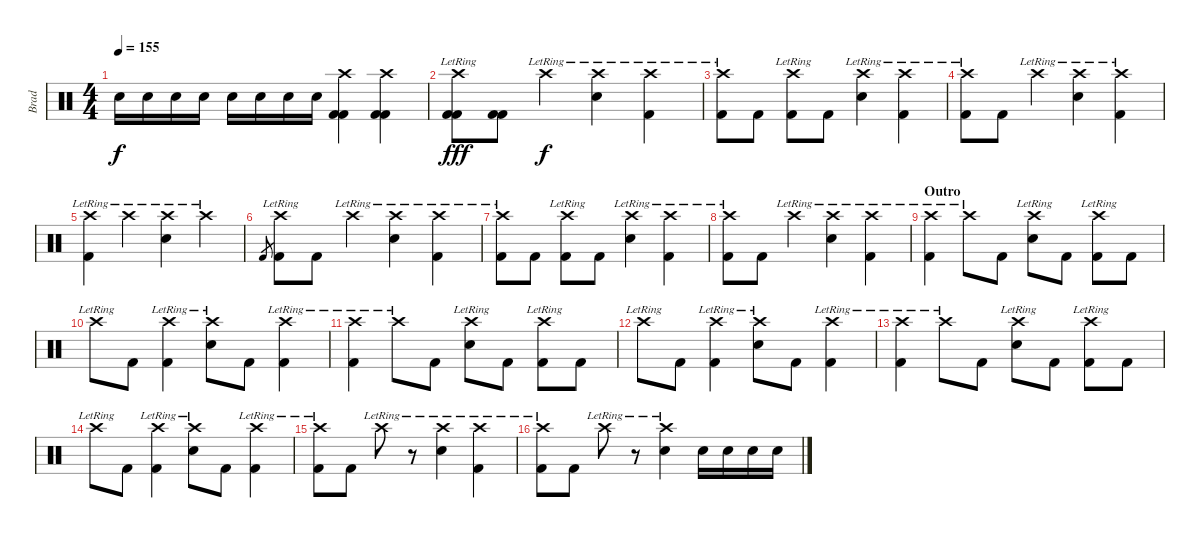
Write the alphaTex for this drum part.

\track ("Brad" "Brad") {instrument percussion}
\staff {score}
\articulation defaults
\ts (4 4)
\tempo 155
\clef neutral
\ks c "Snare (hit) 2".16{dy f} "Snare (hit) 2".16 "Snare (hit) 2".16 "Snare (hit) 2".16 "Snare (hit) 2".16 "Snare (hit) 2".16 "Snare (hit) 2".16 "Snare (hit) 2".16
("Crash high (hit)" "Kick (hit) 2" "Kick (hit) 2").4 ("Crash high (hit)" "Kick (hit) 2" "Kick (hit) 2").4 |
("Crash high (hit)"{lr} "Kick (hit) 2" "Kick (hit) 2").8{dy fff} ("Kick (hit) 2" "Kick (hit) 2").8 "Crash high (hit)"{lr}.4{dy f} ("Crash high (hit)"{lr} "Snare (hit) 2").4 ("Crash high (hit)"{lr} "Kick (hit) 2").4 |
("Crash high (hit)"{lr} "Kick (hit) 2").8 "Kick (hit) 2".8 ("Crash high (hit)"{lr} "Kick (hit) 2").8 "Kick (hit) 2".8 ("Crash high (hit)"{lr} "Electric Snare (hit)").4 ("Crash high (hit)"{lr} "Kick (hit) 2").4 |
("Crash high (hit)"{lr} "Kick (hit) 2").8 "Kick (hit) 2".8 "Crash high (hit)"{lr}.4 ("Crash high (hit)"{lr} "Electric Snare (hit)").4 ("Crash high (hit)"{lr} "Kick (hit) 2").4 |
("Crash high (hit)"{lr} "Kick (hit) 2").4 "Crash high (hit)"{lr}.4 ("Crash high (hit)"{lr} "Electric Snare (hit)").4 "Crash high (hit)"{lr}.4 |
"Kick (hit) 2".8{gr} ("Crash high (hit)"{lr} "Kick (hit) 2").8 "Kick (hit) 2".8 "Crash high (hit)"{lr}.4 ("Crash high (hit)"{lr} "Electric Snare (hit)").4 ("Crash high (hit)"{lr} "Kick (hit) 2").4 |
("Crash high (hit)"{lr} "Kick (hit) 2").8 "Kick (hit) 2".8 ("Crash high (hit)"{lr} "Kick (hit) 2").8 "Kick (hit) 2".8 ("Crash high (hit)"{lr} "Electric Snare (hit)").4 ("Crash high (hit)"{lr} "Kick (hit) 2").4 |
("Crash high (hit)"{lr} "Kick (hit) 2").8 "Kick (hit) 2".8 "Crash high (hit)"{lr}.4 ("Crash high (hit)"{lr} "Electric Snare (hit)").4 ("Crash high (hit)"{lr} "Kick (hit) 2").4 |
\section ("" "Outro")
("Crash high (hit)"{lr} "Kick (hit) 2").4 "Crash high (hit)"{lr}.8 "Kick (hit) 2".8 ("Crash high (hit)"{lr} "Electric Snare (hit)").8 "Kick (hit) 2".8 ("Crash high (hit)"{lr} "Kick (hit) 2").8 "Kick (hit) 2".8 |
"Crash high (hit)"{lr}.8 "Kick (hit) 2".8 ("Crash high (hit)"{lr} "Kick (hit) 2").4 ("Crash high (hit)"{lr} "Electric Snare (hit)").8 "Kick (hit) 2".8 ("Crash high (hit)"{lr} "Kick (hit) 2").4 |
("Crash high (hit)"{lr} "Kick (hit) 2").4 "Crash high (hit)"{lr}.8 "Kick (hit) 2".8 ("Crash high (hit)"{lr} "Electric Snare (hit)").8 "Kick (hit) 2".8 ("Crash high (hit)"{lr} "Kick (hit) 2").8 "Kick (hit) 2".8 |
"Crash high (hit)"{lr}.8 "Kick (hit) 2".8 ("Crash high (hit)"{lr} "Kick (hit) 2").4 ("Crash high (hit)"{lr} "Electric Snare (hit)").8 "Kick (hit) 2".8 ("Crash high (hit)"{lr} "Kick (hit) 2").4 |
("Crash high (hit)"{lr} "Kick (hit) 2").4 "Crash high (hit)"{lr}.8 "Kick (hit) 2".8 ("Crash high (hit)"{lr} "Electric Snare (hit)").8 "Kick (hit) 2".8 ("Crash high (hit)"{lr} "Kick (hit) 2").8 "Kick (hit) 2".8 |
"Crash high (hit)"{lr}.8 "Kick (hit) 2".8 ("Crash high (hit)"{lr} "Kick (hit) 2").4 ("Crash high (hit)"{lr} "Electric Snare (hit)").8 "Kick (hit) 2".8 ("Crash high (hit)"{lr} "Kick (hit) 2").4 |
("Crash high (hit)"{lr} "Kick (hit) 2").8 "Kick (hit) 2".8 "Crash high (hit)"{lr}.8 r.8 ("Crash high (hit)"{lr} "Electric Snare (hit)").4 ("Crash high (hit)"{lr} "Kick (hit) 2").4 |
("Crash high (hit)"{lr} "Kick (hit) 2").8 "Kick (hit) 2".8 "Crash high (hit)"{lr}.8 r.8 ("Crash high (hit)"{lr} "Electric Snare (hit)").4 "Electric Snare (hit)".16 "Electric Snare (hit)".16 "Electric Snare (hit)".16 "Electric Snare (hit)".16
